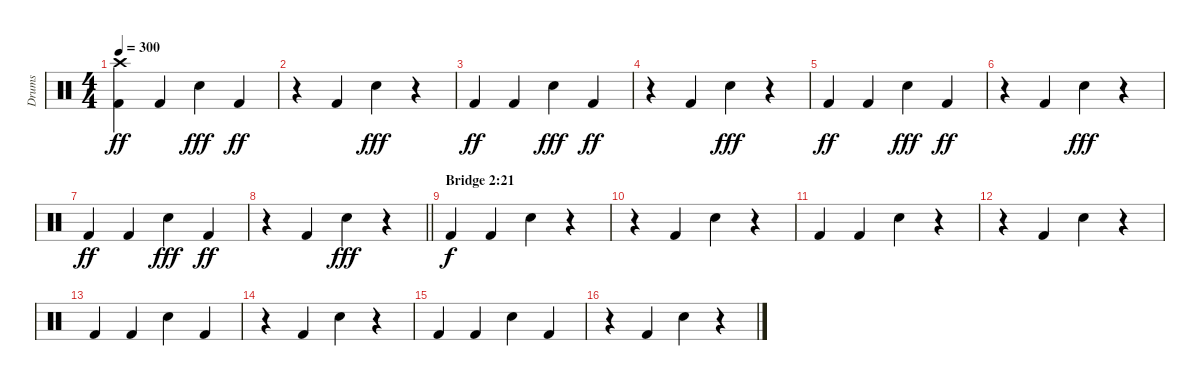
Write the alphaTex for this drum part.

\track ("Drums" "Drums") {instrument percussion}
\staff {score}
\articulation defaults
\ts (4 4)
\tempo 300
\clef neutral
\ks c
("Crash high (hit)" "Kick (hit) 2").4{dy ff} "Kick (hit) 2".4 "Electric Snare (hit)".4{dy fff} "Kick (hit) 2".4{dy ff} |
r.4 "Kick (hit) 2".4 "Electric Snare (hit)".4{dy fff} r.4 |
"Kick (hit) 2".4{dy ff} "Kick (hit) 2".4 "Electric Snare (hit)".4{dy fff} "Kick (hit) 2".4{dy ff} |
r.4 "Kick (hit) 2".4 "Electric Snare (hit)".4{dy fff} r.4 |
"Kick (hit) 2".4{dy ff} "Kick (hit) 2".4 "Electric Snare (hit)".4{dy fff} "Kick (hit) 2".4{dy ff} |
r.4 "Kick (hit) 2".4 "Electric Snare (hit)".4{dy fff} r.4 |
"Kick (hit) 2".4{dy ff} "Kick (hit) 2".4 "Electric Snare (hit)".4{dy fff} "Kick (hit) 2".4{dy ff} |
\barLineRight lightlight
r.4 "Kick (hit) 2".4 "Electric Snare (hit)".4{dy fff} r.4 |
\section ("" "Bridge 2:21")
"Kick (hit) 2".4{dy f} "Kick (hit) 2".4 "Snare (hit) 2".4 r.4 |
r.4 "Kick (hit) 2".4 "Snare (hit) 2".4 r.4 |
"Kick (hit) 2".4 "Kick (hit) 2".4 "Snare (hit) 2".4 r.4 |
r.4 "Kick (hit) 2".4 "Snare (hit) 2".4 r.4 |
"Kick (hit) 2".4 "Kick (hit) 2".4 "Snare (hit) 2".4 "Kick (hit) 2".4 |
r.4 "Kick (hit) 2".4 "Snare (hit) 2".4 r.4 |
"Kick (hit) 2".4 "Kick (hit) 2".4 "Snare (hit) 2".4 "Kick (hit) 2".4 |
r.4 "Kick (hit) 2".4 "Snare (hit) 2".4 r.4
